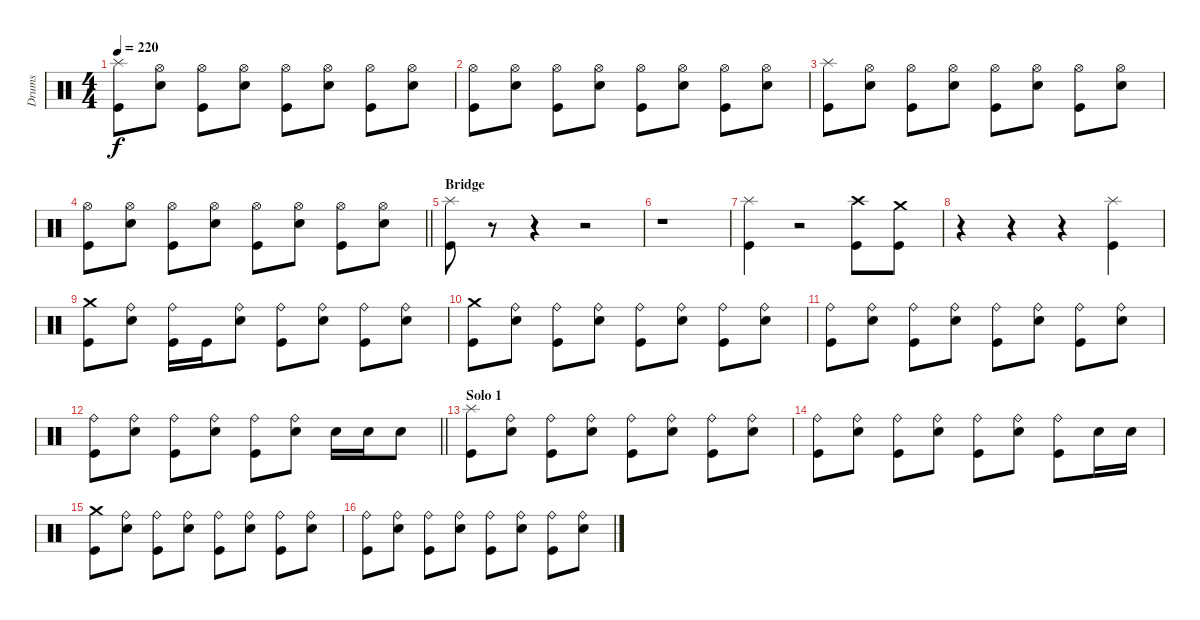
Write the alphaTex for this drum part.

\track ("Drums" "Drums") {instrument percussion}
\staff {score}
\articulation defaults
\ts (4 4)
\tempo 220
\clef neutral
\ks c
("Kick (hit)" "Splash (hit)").8{dy f} ("Electric Snare (hit)" "Hi-Hat (open)").8 ("Kick (hit)" "Hi-Hat (open)").8 ("Electric Snare (hit)" "Hi-Hat (open)").8 ("Kick (hit)" "Hi-Hat (open)").8 ("Electric Snare (hit)" "Hi-Hat (open)").8 ("Kick (hit)" "Hi-Hat (open)").8 ("Electric Snare (hit)" "Hi-Hat (open)").8 |
("Kick (hit)" "Hi-Hat (open)").8 ("Electric Snare (hit)" "Hi-Hat (open)").8 ("Kick (hit)" "Hi-Hat (open)").8 ("Electric Snare (hit)" "Hi-Hat (open)").8 ("Kick (hit)" "Hi-Hat (open)").8 ("Electric Snare (hit)" "Hi-Hat (open)").8 ("Kick (hit)" "Hi-Hat (open)").8 ("Electric Snare (hit)" "Hi-Hat (open)").8 |
("Kick (hit)" "Splash (hit)").8 ("Electric Snare (hit)" "Hi-Hat (open)").8 ("Kick (hit)" "Hi-Hat (open)").8 ("Electric Snare (hit)" "Hi-Hat (open)").8 ("Kick (hit)" "Hi-Hat (open)").8 ("Electric Snare (hit)" "Hi-Hat (open)").8 ("Kick (hit)" "Hi-Hat (open)").8 ("Electric Snare (hit)" "Hi-Hat (open)").8 |
\barLineRight lightlight
("Kick (hit)" "Hi-Hat (open)").8 ("Electric Snare (hit)" "Hi-Hat (open)").8 ("Kick (hit)" "Hi-Hat (open)").8 ("Electric Snare (hit)" "Hi-Hat (open)").8 ("Kick (hit)" "Hi-Hat (open)").8 ("Electric Snare (hit)" "Hi-Hat (open)").8 ("Kick (hit)" "Hi-Hat (open)").8 ("Electric Snare (hit)" "Hi-Hat (open)").8 |
\section ("" "Bridge")
("Kick (hit)" "Splash (hit)").8 r.8 r.4 r.2 |
r.1 |
("Kick (hit)" "Splash (hit)").4 r.2 ("Kick (hit)" "Crash high (hit)").8 ("Kick (hit)" "Crash medium (hit)").8 |
r.4 r.4 r.4 ("Kick (hit)" "Splash (hit)").4 |
("Kick (hit)" "Crash medium (hit)").8 ("Electric Snare (hit)" "Ride (bell)").8 ("Kick (hit)" "Ride (bell)").16 "Kick (hit)".16 ("Electric Snare (hit)" "Ride (bell)").8 ("Kick (hit)" "Ride (bell)").8 ("Electric Snare (hit)" "Ride (bell)").8 ("Kick (hit)" "Ride (bell)").8 ("Electric Snare (hit)" "Ride (bell)").8 |
("Kick (hit)" "Crash medium (hit)").8 ("Electric Snare (hit)" "Ride (bell)").8 ("Kick (hit)" "Ride (bell)").8 ("Electric Snare (hit)" "Ride (bell)").8 ("Kick (hit)" "Ride (bell)").8 ("Electric Snare (hit)" "Ride (bell)").8 ("Kick (hit)" "Ride (bell)").8 ("Electric Snare (hit)" "Ride (bell)").8 |
("Kick (hit)" "Ride (bell)").8 ("Electric Snare (hit)" "Ride (bell)").8 ("Kick (hit)" "Ride (bell)").8 ("Electric Snare (hit)" "Ride (bell)").8 ("Kick (hit)" "Ride (bell)").8 ("Electric Snare (hit)" "Ride (bell)").8 ("Kick (hit)" "Ride (bell)").8 ("Electric Snare (hit)" "Ride (bell)").8 |
\barLineRight lightlight
("Kick (hit)" "Ride (bell)").8 ("Electric Snare (hit)" "Ride (bell)").8 ("Kick (hit)" "Ride (bell)").8 ("Electric Snare (hit)" "Ride (bell)").8 ("Kick (hit)" "Ride (bell)").8 ("Electric Snare (hit)" "Ride (bell)").8 "Electric Snare (hit)".16 "Electric Snare (hit)".16 "Electric Snare (hit)".8 |
\section ("" "Solo 1")
("Kick (hit)" "Splash (hit)").8 ("Electric Snare (hit)" "Ride (bell)").8 ("Kick (hit)" "Ride (bell)").8 ("Electric Snare (hit)" "Ride (bell)").8 ("Kick (hit)" "Ride (bell)").8 ("Electric Snare (hit)" "Ride (bell)").8 ("Kick (hit)" "Ride (bell)").8 ("Electric Snare (hit)" "Ride (bell)").8 |
("Kick (hit)" "Ride (bell)").8 ("Electric Snare (hit)" "Ride (bell)").8 ("Kick (hit)" "Ride (bell)").8 ("Electric Snare (hit)" "Ride (bell)").8 ("Kick (hit)" "Ride (bell)").8 ("Electric Snare (hit)" "Ride (bell)").8 ("Kick (hit)" "Ride (bell)").8 "Electric Snare (hit)".16 "Electric Snare (hit)".16 |
("Kick (hit)" "Crash medium (hit)").8 ("Electric Snare (hit)" "Ride (bell)").8 ("Kick (hit)" "Ride (bell)").8 ("Electric Snare (hit)" "Ride (bell)").8 ("Kick (hit)" "Ride (bell)").8 ("Electric Snare (hit)" "Ride (bell)").8 ("Kick (hit)" "Ride (bell)").8 ("Electric Snare (hit)" "Ride (bell)").8 |
("Kick (hit)" "Ride (bell)").8 ("Electric Snare (hit)" "Ride (bell)").8 ("Kick (hit)" "Ride (bell)").8 ("Electric Snare (hit)" "Ride (bell)").8 ("Kick (hit)" "Ride (bell)").8 ("Electric Snare (hit)" "Ride (bell)").8 ("Kick (hit)" "Ride (bell)").8 ("Electric Snare (hit)" "Ride (bell)").8
